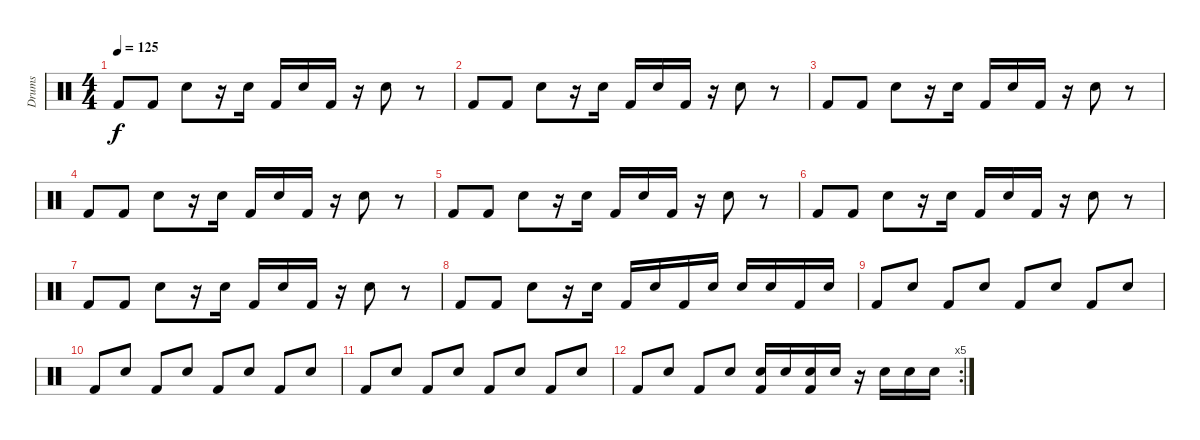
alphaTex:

\track ("Drums" "Drums") {instrument percussion}
\staff {score}
\articulation defaults
\ts (4 4)
\tempo 125
\clef neutral
\ks c "Kick (hit) 2".8{dy f} "Kick (hit) 2".8 "Snare (hit) 2".8
r.16 "Snare (hit) 2".16 "Kick (hit) 2".16 "Snare (hit) 2".16 "Kick (hit) 2".16 r.16 "Snare (hit) 2".8 r.8 |
"Kick (hit) 2".8 "Kick (hit) 2".8 "Snare (hit) 2".8 r.16 "Snare (hit) 2".16 "Kick (hit) 2".16 "Snare (hit) 2".16 "Kick (hit) 2".16 r.16 "Snare (hit) 2".8 r.8 |
"Kick (hit) 2".8 "Kick (hit) 2".8 "Snare (hit) 2".8 r.16 "Snare (hit) 2".16 "Kick (hit) 2".16 "Snare (hit) 2".16 "Kick (hit) 2".16 r.16 "Snare (hit) 2".8 r.8 |
"Kick (hit) 2".8 "Kick (hit) 2".8 "Snare (hit) 2".8 r.16 "Snare (hit) 2".16 "Kick (hit) 2".16 "Snare (hit) 2".16 "Kick (hit) 2".16 r.16 "Snare (hit) 2".8 r.8 |
"Kick (hit) 2".8 "Kick (hit) 2".8 "Snare (hit) 2".8 r.16 "Snare (hit) 2".16 "Kick (hit) 2".16 "Snare (hit) 2".16 "Kick (hit) 2".16 r.16 "Snare (hit) 2".8 r.8 |
"Kick (hit) 2".8 "Kick (hit) 2".8 "Snare (hit) 2".8 r.16 "Snare (hit) 2".16 "Kick (hit) 2".16 "Snare (hit) 2".16 "Kick (hit) 2".16 r.16 "Snare (hit) 2".8 r.8 |
"Kick (hit) 2".8 "Kick (hit) 2".8 "Snare (hit) 2".8 r.16 "Snare (hit) 2".16 "Kick (hit) 2".16 "Snare (hit) 2".16 "Kick (hit) 2".16 r.16 "Snare (hit) 2".8 r.8 |
"Kick (hit) 2".8 "Kick (hit) 2".8 "Snare (hit) 2".8 r.16 "Snare (hit) 2".16 "Kick (hit) 2".16 "Snare (hit) 2".16 "Kick (hit) 2".16 "Snare (hit) 2".16 "Snare (hit) 2".16 "Snare (hit) 2".16 "Kick (hit) 2".16 "Snare (hit) 2".16 |
"Kick (hit) 2".8 "Snare (hit) 2".8 "Kick (hit) 2".8 "Snare (hit) 2".8 "Kick (hit) 2".8 "Snare (hit) 2".8 "Kick (hit) 2".8 "Snare (hit) 2".8 |
"Kick (hit) 2".8 "Snare (hit) 2".8 "Kick (hit) 2".8 "Snare (hit) 2".8 "Kick (hit) 2".8 "Snare (hit) 2".8 "Kick (hit) 2".8 "Snare (hit) 2".8 |
"Kick (hit) 2".8 "Snare (hit) 2".8 "Kick (hit) 2".8 "Snare (hit) 2".8 "Kick (hit) 2".8 "Snare (hit) 2".8 "Kick (hit) 2".8 "Snare (hit) 2".8 |
\rc 5 "Kick (hit) 2".8 "Snare (hit) 2".8 "Kick (hit) 2".8 "Snare (hit) 2".8
("Snare (hit) 2" "Kick (hit) 2").16 "Snare (hit) 2".16 ("Snare (hit) 2" "Kick (hit) 2").16 "Snare (hit) 2".16 r.16 "Snare (hit) 2".16 "Snare (hit) 2".16 "Snare (hit) 2".16
